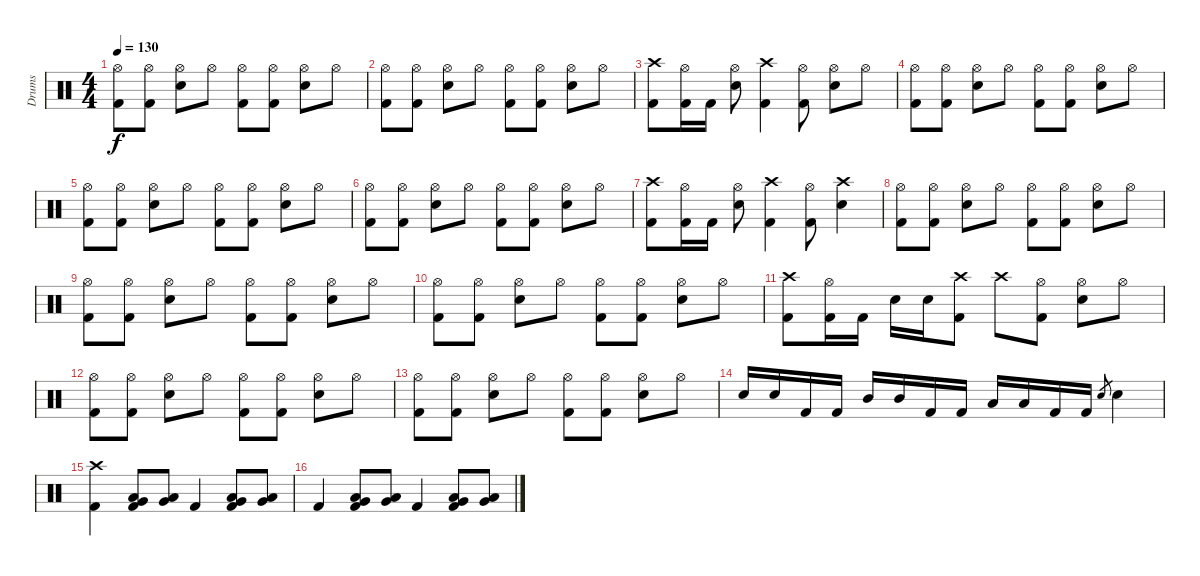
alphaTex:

\track ("Drums" "Drums") {instrument percussion}
\staff {score}
\articulation defaults
\ts (4 4)
\tempo 130
\clef neutral
\ks c
("Hi-Hat (open)" "Kick (hit) 2").8{dy f} ("Hi-Hat (open)" "Kick (hit) 2").8 ("Hi-Hat (open)" "Electric Snare (hit)").8 "Hi-Hat (open)".8 ("Hi-Hat (open)" "Kick (hit) 2").8 ("Hi-Hat (open)" "Kick (hit) 2").8 ("Hi-Hat (open)" "Electric Snare (hit)").8 "Hi-Hat (open)".8 |
("Hi-Hat (open)" "Kick (hit) 2").8 ("Hi-Hat (open)" "Kick (hit) 2").8 ("Hi-Hat (open)" "Electric Snare (hit)").8 "Hi-Hat (open)".8 ("Hi-Hat (open)" "Kick (hit) 2").8 ("Hi-Hat (open)" "Kick (hit) 2").8 ("Hi-Hat (open)" "Electric Snare (hit)").8 "Hi-Hat (open)".8 |
("Crash high (hit)" "Kick (hit) 2").8 ("Hi-Hat (open)" "Kick (hit) 2").16 "Kick (hit) 2".16 ("Hi-Hat (open)" "Electric Snare (hit)").8 ("Crash high (hit)" "Kick (hit) 2").4 ("Hi-Hat (open)" "Kick (hit) 2").8 ("Hi-Hat (open)" "Electric Snare (hit)").8 "Hi-Hat (open)".8 |
("Hi-Hat (open)" "Kick (hit) 2").8 ("Hi-Hat (open)" "Kick (hit) 2").8 ("Hi-Hat (open)" "Electric Snare (hit)").8 "Hi-Hat (open)".8 ("Hi-Hat (open)" "Kick (hit) 2").8 ("Hi-Hat (open)" "Kick (hit) 2").8 ("Hi-Hat (open)" "Electric Snare (hit)").8 "Hi-Hat (open)".8 |
("Hi-Hat (open)" "Kick (hit) 2").8 ("Hi-Hat (open)" "Kick (hit) 2").8 ("Hi-Hat (open)" "Electric Snare (hit)").8 "Hi-Hat (open)".8 ("Hi-Hat (open)" "Kick (hit) 2").8 ("Hi-Hat (open)" "Kick (hit) 2").8 ("Hi-Hat (open)" "Electric Snare (hit)").8 "Hi-Hat (open)".8 |
("Hi-Hat (open)" "Kick (hit) 2").8 ("Hi-Hat (open)" "Kick (hit) 2").8 ("Hi-Hat (open)" "Electric Snare (hit)").8 "Hi-Hat (open)".8 ("Hi-Hat (open)" "Kick (hit) 2").8 ("Hi-Hat (open)" "Kick (hit) 2").8 ("Hi-Hat (open)" "Electric Snare (hit)").8 "Hi-Hat (open)".8 |
("Crash high (hit)" "Kick (hit) 2").8 ("Hi-Hat (open)" "Kick (hit) 2").16 "Kick (hit) 2".16 ("Hi-Hat (open)" "Electric Snare (hit)").8 ("Crash high (hit)" "Kick (hit) 2").4 ("Hi-Hat (open)" "Kick (hit) 2").8 ("Crash high (hit)" "Electric Snare (hit)").4 |
("Hi-Hat (open)" "Kick (hit) 2").8 ("Hi-Hat (open)" "Kick (hit) 2").8 ("Hi-Hat (open)" "Electric Snare (hit)").8 "Hi-Hat (open)".8 ("Hi-Hat (open)" "Kick (hit) 2").8 ("Hi-Hat (open)" "Kick (hit) 2").8 ("Hi-Hat (open)" "Electric Snare (hit)").8 "Hi-Hat (open)".8 |
("Hi-Hat (open)" "Kick (hit) 2").8 ("Hi-Hat (open)" "Kick (hit) 2").8 ("Hi-Hat (open)" "Electric Snare (hit)").8 "Hi-Hat (open)".8 ("Hi-Hat (open)" "Kick (hit) 2").8 ("Hi-Hat (open)" "Kick (hit) 2").8 ("Hi-Hat (open)" "Electric Snare (hit)").8 "Hi-Hat (open)".8 |
("Hi-Hat (open)" "Kick (hit) 2").8 ("Hi-Hat (open)" "Kick (hit) 2").8 ("Hi-Hat (open)" "Electric Snare (hit)").8 "Hi-Hat (open)".8 ("Hi-Hat (open)" "Kick (hit) 2").8 ("Hi-Hat (open)" "Kick (hit) 2").8 ("Hi-Hat (open)" "Electric Snare (hit)").8 "Hi-Hat (open)".8 |
("Crash high (hit)" "Kick (hit) 2").8 ("Hi-Hat (open)" "Kick (hit) 2").16 "Kick (hit) 2".16 "Electric Snare (hit)".16 "Electric Snare (hit)".16 ("Crash high (hit)" "Kick (hit) 2").8 "Crash high (hit)".8 ("Hi-Hat (open)" "Kick (hit) 2").8 ("Hi-Hat (open)" "Electric Snare (hit)").8 "Hi-Hat (open)".8 |
("Hi-Hat (open)" "Kick (hit) 2").8 ("Hi-Hat (open)" "Kick (hit) 2").8 ("Hi-Hat (open)" "Electric Snare (hit)").8 "Hi-Hat (open)".8 ("Hi-Hat (open)" "Kick (hit) 2").8 ("Hi-Hat (open)" "Kick (hit) 2").8 ("Hi-Hat (open)" "Electric Snare (hit)").8 "Hi-Hat (open)".8 |
("Hi-Hat (open)" "Kick (hit) 2").8 ("Hi-Hat (open)" "Kick (hit) 2").8 ("Hi-Hat (open)" "Electric Snare (hit)").8 "Hi-Hat (open)".8 ("Hi-Hat (open)" "Kick (hit) 2").8 ("Hi-Hat (open)" "Kick (hit) 2").8 ("Hi-Hat (open)" "Electric Snare (hit)").8 "Hi-Hat (open)".8 |
"Electric Snare (hit)".16 "Electric Snare (hit)".16 "Kick (hit) 2".16 "Kick (hit) 2".16 "Mid Tom (hit)".16 "Mid Tom (hit)".16 "Kick (hit) 2".16 "Kick (hit) 2".16 "Low Tom (hit)".16 "Low Tom (hit)".16 "Kick (hit) 2".16 "Kick (hit) 2".16 "Electric Snare (hit)".8{gr} "Electric Snare (hit)".4 |
("Crash high (hit)" "Kick (hit) 2").4 ("Low Tom (hit)" "Very Low Tom (hit)" "Kick (hit) 2").8 ("Low Tom (hit)" "Very Low Tom (hit)").8 "Kick (hit) 2".4 ("Low Tom (hit)" "Very Low Tom (hit)" "Kick (hit) 2").8 ("Low Tom (hit)" "Very Low Tom (hit)").8 |
"Kick (hit) 2".4 ("Low Tom (hit)" "Very Low Tom (hit)" "Kick (hit) 2").8 ("Low Tom (hit)" "Very Low Tom (hit)").8 "Kick (hit) 2".4 ("Low Tom (hit)" "Very Low Tom (hit)" "Kick (hit) 2").8 ("Low Tom (hit)" "Very Low Tom (hit)").8
